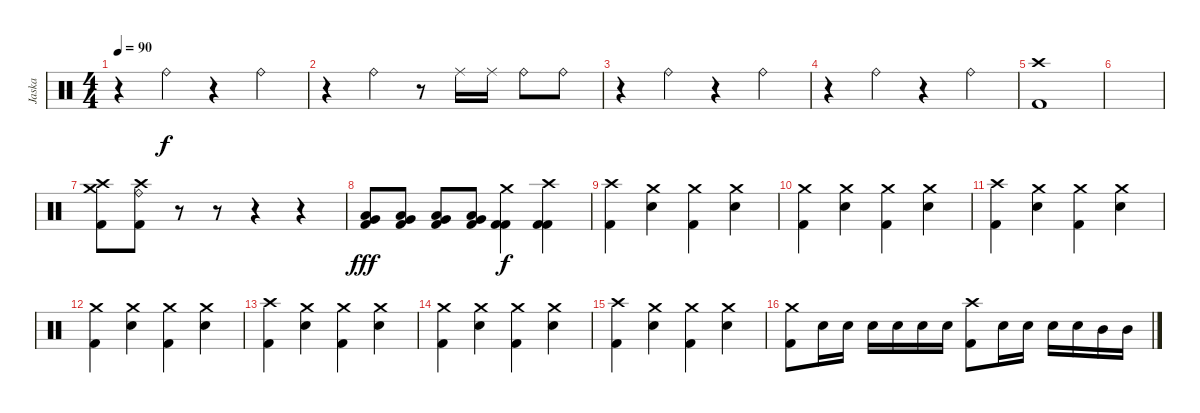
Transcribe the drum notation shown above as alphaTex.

\track ("Jaska" "Jaska") {instrument percussion}
\staff {score}
\articulation defaults
\ts (4 4)
\tempo 90
\clef neutral
\ks c
r.4{dy f} "Ride (bell)".4 r.4 "Ride (bell)".4 |
r.4 "Ride (bell)".4 r.8 "Ride (middle)".16 "Ride (middle)".16 "Ride (bell)".8 "Ride (bell)".8 |
r.4 "Ride (bell)".4 r.4 "Ride (bell)".4 |
r.4 "Ride (bell)".4 r.4 "Ride (bell)".4 |
("Crash high (hit)" "Kick (hit) 2").1 |
|
("Crash high (hit)" "Crash medium (hit)" "Kick (hit) 2").8 ("Crash high (hit)" "Ride (bell)" "Kick (hit) 2").8 r.8{volume 0} r.8 r.4 r.4 |
("Very Low Tom (hit)" "Low Floor Tom (hit)" "Kick (hit) 2").8{dy fff volume 16} ("Very Low Tom (hit)" "Low Floor Tom (hit)" "Kick (hit) 2").8 ("Very Low Tom (hit)" "Low Floor Tom (hit)" "Kick (hit) 2").8 ("Very Low Tom (hit)" "Low Floor Tom (hit)" "Kick (hit) 2").8 ("Crash medium (hit)" "Kick (hit) 2" "Kick (hit) 2").4{dy f} ("Crash high (hit)" "Kick (hit) 2" "Kick (hit) 2").4 |
("Crash high (hit)" "Kick (hit) 2").4 ("Crash medium (hit)" "Snare (hit) 2").4 ("Crash medium (hit)" "Kick (hit) 2").4 ("Crash medium (hit)" "Snare (hit) 2").4 |
("Crash medium (hit)" "Kick (hit) 2").4 ("Crash medium (hit)" "Snare (hit) 2").4 ("Crash medium (hit)" "Kick (hit) 2").4 ("Crash medium (hit)" "Snare (hit) 2").4 |
("Crash high (hit)" "Kick (hit) 2").4 ("Crash medium (hit)" "Snare (hit) 2").4 ("Crash medium (hit)" "Kick (hit) 2").4 ("Crash medium (hit)" "Snare (hit) 2").4 |
("Crash medium (hit)" "Kick (hit) 2").4 ("Crash medium (hit)" "Snare (hit) 2").4 ("Crash medium (hit)" "Kick (hit) 2").4 ("Crash medium (hit)" "Snare (hit) 2").4 |
("Crash high (hit)" "Kick (hit) 2").4 ("Crash medium (hit)" "Snare (hit) 2").4 ("Crash medium (hit)" "Kick (hit) 2").4 ("Crash medium (hit)" "Snare (hit) 2").4 |
("Crash medium (hit)" "Kick (hit) 2").4 ("Crash medium (hit)" "Snare (hit) 2").4 ("Crash medium (hit)" "Kick (hit) 2").4 ("Crash medium (hit)" "Snare (hit) 2").4 |
("Crash high (hit)" "Kick (hit) 2").4 ("Crash medium (hit)" "Snare (hit) 2").4 ("Crash medium (hit)" "Kick (hit) 2").4 ("Crash medium (hit)" "Snare (hit) 2").4 |
("Crash medium (hit)" "Kick (hit) 2").8 "Snare (hit) 2".16 "Snare (hit) 2".16 "Snare (hit) 2".16 "Snare (hit) 2".16 "Snare (hit) 2".16 "Snare (hit) 2".16 ("Crash high (hit)" "Kick (hit) 2").8 "Snare (hit) 2".16 "Snare (hit) 2".16 "Snare (hit) 2".16 "Snare (hit) 2".16 "Mid Tom (hit)".16 "Mid Tom (hit)".16
